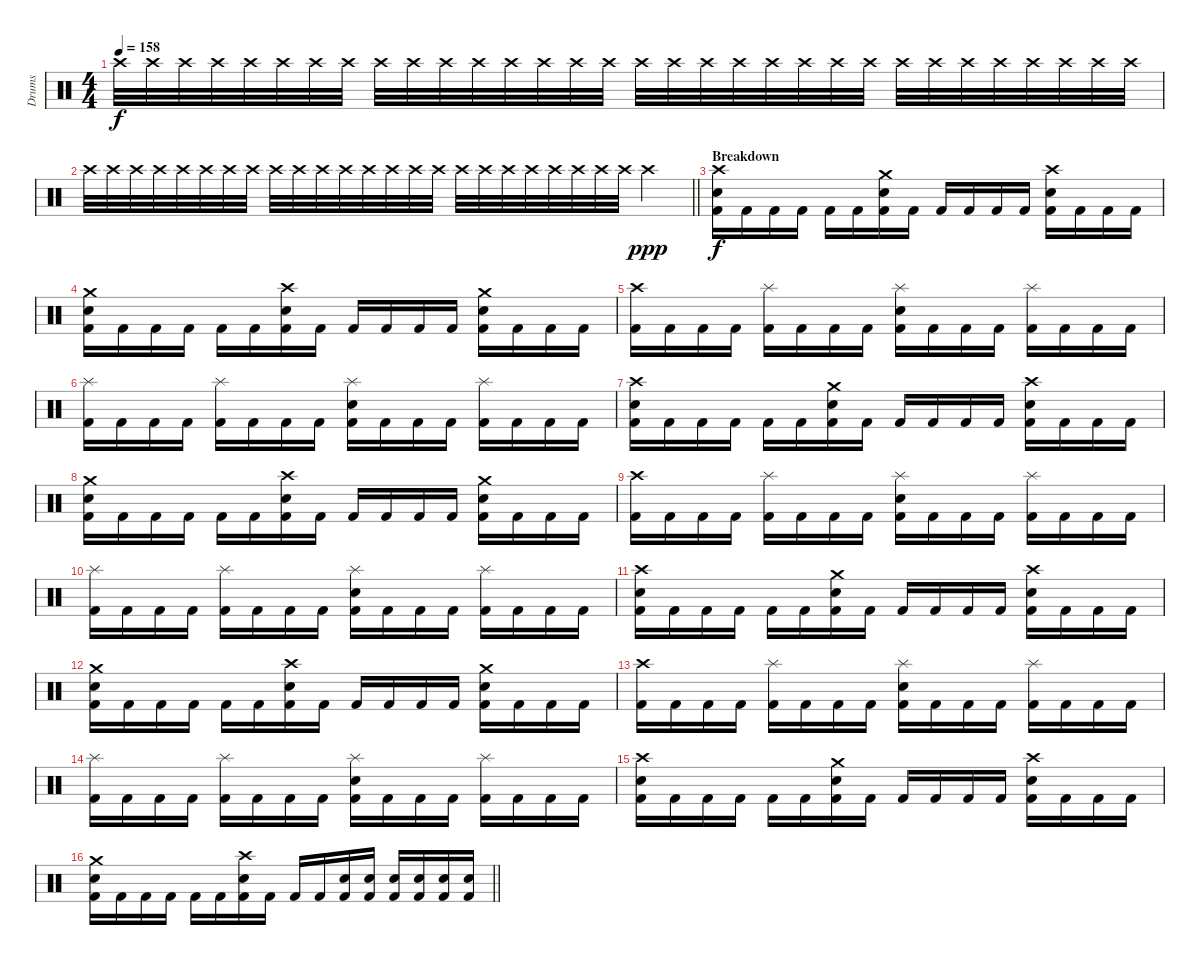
\track ("Drums" "Drums") {instrument percussion}
\staff {score}
\articulation defaults
\ts (4 4)
\tempo 158
\clef neutral
\ks c "Crash high (hit)".32{dy f volume 0} "Crash high (hit)".32{volume 12} "Crash high (hit)".32 "Crash high (hit)".32 "Crash high (hit)".32 "Crash high (hit)".32 "Crash high (hit)".32 "Crash high (hit)".32 "Crash high (hit)".32 "Crash high (hit)".32 "Crash high (hit)".32 "Crash high (hit)".32 "Crash high (hit)".32 "Crash high (hit)".32 "Crash high (hit)".32 "Crash high (hit)".32 "Crash high (hit)".32 "Crash high (hit)".32 "Crash high (hit)".32 "Crash high (hit)".32 "Crash high (hit)".32 "Crash high (hit)".32 "Crash high (hit)".32 "Crash high (hit)".32 "Crash high (hit)".32 "Crash high (hit)".32 "Crash high (hit)".32 "Crash high (hit)".32 "Crash high (hit)".32 "Crash high (hit)".32 "Crash high (hit)".32 "Crash high (hit)".32
|
\barLineRight lightlight "Crash high (hit)".32 "Crash high (hit)".32 "Crash high (hit)".32 "Crash high (hit)".32 "Crash high (hit)".32 "Crash high (hit)".32 "Crash high (hit)".32 "Crash high (hit)".32 "Crash high (hit)".32 "Crash high (hit)".32 "Crash high (hit)".32 "Crash high (hit)".32 "Crash high (hit)".32 "Crash high (hit)".32 "Crash high (hit)".32 "Crash high (hit)".32 "Crash high (hit)".32 "Crash high (hit)".32 "Crash high (hit)".32 "Crash high (hit)".32 "Crash high (hit)".32 "Crash high (hit)".32 "Crash high (hit)".32 "Crash high (hit)".32 "Crash high (hit)".4{dy ppp}
|
\section ("" "Breakdown")
("Crash high (hit)" "Snare (hit) 2" "Kick (hit) 2").16{dy f} "Kick (hit) 2".16 "Kick (hit) 2".16 "Kick (hit) 2".16 "Kick (hit) 2".16 "Kick (hit) 2".16 ("Crash medium (hit)" "Snare (hit) 2" "Kick (hit) 2").16 "Kick (hit) 2".16 "Kick (hit) 2".16 "Kick (hit) 2".16 "Kick (hit) 2".16 "Kick (hit) 2".16 ("Crash high (hit)" "Snare (hit) 2" "Kick (hit) 2").16 "Kick (hit) 2".16 "Kick (hit) 2".16 "Kick (hit) 2".16 |
("Crash medium (hit)" "Snare (hit) 2" "Kick (hit) 2").16 "Kick (hit) 2".16 "Kick (hit) 2".16 "Kick (hit) 2".16 "Kick (hit) 2".16 "Kick (hit) 2".16 ("Crash high (hit)" "Snare (hit) 2" "Kick (hit) 2").16 "Kick (hit) 2".16 "Kick (hit) 2".16 "Kick (hit) 2".16 "Kick (hit) 2".16 "Kick (hit) 2".16 ("Crash medium (hit)" "Snare (hit) 2" "Kick (hit) 2").16 "Kick (hit) 2".16 "Kick (hit) 2".16 "Kick (hit) 2".16 |
("Crash high (hit)" "Kick (hit) 2").16 "Kick (hit) 2".16 "Kick (hit) 2".16 "Kick (hit) 2".16 ("Splash (hit)" "Kick (hit) 2").16 "Kick (hit) 2".16 "Kick (hit) 2".16 "Kick (hit) 2".16 ("Splash (hit)" "Snare (hit) 2" "Kick (hit) 2").16 "Kick (hit) 2".16 "Kick (hit) 2".16 "Kick (hit) 2".16 ("Splash (hit)" "Kick (hit) 2").16 "Kick (hit) 2".16 "Kick (hit) 2".16 "Kick (hit) 2".16 |
("Splash (hit)" "Kick (hit) 2").16 "Kick (hit) 2".16 "Kick (hit) 2".16 "Kick (hit) 2".16 ("Splash (hit)" "Kick (hit) 2").16 "Kick (hit) 2".16 "Kick (hit) 2".16 "Kick (hit) 2".16 ("Splash (hit)" "Snare (hit) 2" "Kick (hit) 2").16 "Kick (hit) 2".16 "Kick (hit) 2".16 "Kick (hit) 2".16 ("Splash (hit)" "Kick (hit) 2").16 "Kick (hit) 2".16 "Kick (hit) 2".16 "Kick (hit) 2".16 |
("Crash high (hit)" "Snare (hit) 2" "Kick (hit) 2").16 "Kick (hit) 2".16 "Kick (hit) 2".16 "Kick (hit) 2".16 "Kick (hit) 2".16 "Kick (hit) 2".16 ("Crash medium (hit)" "Snare (hit) 2" "Kick (hit) 2").16 "Kick (hit) 2".16 "Kick (hit) 2".16 "Kick (hit) 2".16 "Kick (hit) 2".16 "Kick (hit) 2".16 ("Crash high (hit)" "Snare (hit) 2" "Kick (hit) 2").16 "Kick (hit) 2".16 "Kick (hit) 2".16 "Kick (hit) 2".16 |
("Crash medium (hit)" "Snare (hit) 2" "Kick (hit) 2").16 "Kick (hit) 2".16 "Kick (hit) 2".16 "Kick (hit) 2".16 "Kick (hit) 2".16 "Kick (hit) 2".16 ("Crash high (hit)" "Snare (hit) 2" "Kick (hit) 2").16 "Kick (hit) 2".16 "Kick (hit) 2".16 "Kick (hit) 2".16 "Kick (hit) 2".16 "Kick (hit) 2".16 ("Crash medium (hit)" "Snare (hit) 2" "Kick (hit) 2").16 "Kick (hit) 2".16 "Kick (hit) 2".16 "Kick (hit) 2".16 |
("Crash high (hit)" "Kick (hit) 2").16 "Kick (hit) 2".16 "Kick (hit) 2".16 "Kick (hit) 2".16 ("Splash (hit)" "Kick (hit) 2").16 "Kick (hit) 2".16 "Kick (hit) 2".16 "Kick (hit) 2".16 ("Splash (hit)" "Snare (hit) 2" "Kick (hit) 2").16 "Kick (hit) 2".16 "Kick (hit) 2".16 "Kick (hit) 2".16 ("Splash (hit)" "Kick (hit) 2").16 "Kick (hit) 2".16 "Kick (hit) 2".16 "Kick (hit) 2".16 |
("Splash (hit)" "Kick (hit) 2").16 "Kick (hit) 2".16 "Kick (hit) 2".16 "Kick (hit) 2".16 ("Splash (hit)" "Kick (hit) 2").16 "Kick (hit) 2".16 "Kick (hit) 2".16 "Kick (hit) 2".16 ("Splash (hit)" "Snare (hit) 2" "Kick (hit) 2").16 "Kick (hit) 2".16 "Kick (hit) 2".16 "Kick (hit) 2".16 ("Splash (hit)" "Kick (hit) 2").16 "Kick (hit) 2".16 "Kick (hit) 2".16 "Kick (hit) 2".16 |
("Crash high (hit)" "Snare (hit) 2" "Kick (hit) 2").16 "Kick (hit) 2".16 "Kick (hit) 2".16 "Kick (hit) 2".16 "Kick (hit) 2".16 "Kick (hit) 2".16 ("Crash medium (hit)" "Snare (hit) 2" "Kick (hit) 2").16 "Kick (hit) 2".16 "Kick (hit) 2".16 "Kick (hit) 2".16 "Kick (hit) 2".16 "Kick (hit) 2".16 ("Crash high (hit)" "Snare (hit) 2" "Kick (hit) 2").16 "Kick (hit) 2".16 "Kick (hit) 2".16 "Kick (hit) 2".16 |
("Crash medium (hit)" "Snare (hit) 2" "Kick (hit) 2").16 "Kick (hit) 2".16 "Kick (hit) 2".16 "Kick (hit) 2".16 "Kick (hit) 2".16 "Kick (hit) 2".16 ("Crash high (hit)" "Snare (hit) 2" "Kick (hit) 2").16 "Kick (hit) 2".16 "Kick (hit) 2".16 "Kick (hit) 2".16 "Kick (hit) 2".16 "Kick (hit) 2".16 ("Crash medium (hit)" "Snare (hit) 2" "Kick (hit) 2").16 "Kick (hit) 2".16 "Kick (hit) 2".16 "Kick (hit) 2".16 |
("Crash high (hit)" "Kick (hit) 2").16 "Kick (hit) 2".16 "Kick (hit) 2".16 "Kick (hit) 2".16 ("Splash (hit)" "Kick (hit) 2").16 "Kick (hit) 2".16 "Kick (hit) 2".16 "Kick (hit) 2".16 ("Splash (hit)" "Snare (hit) 2" "Kick (hit) 2").16 "Kick (hit) 2".16 "Kick (hit) 2".16 "Kick (hit) 2".16 ("Splash (hit)" "Kick (hit) 2").16 "Kick (hit) 2".16 "Kick (hit) 2".16 "Kick (hit) 2".16 |
("Splash (hit)" "Kick (hit) 2").16 "Kick (hit) 2".16 "Kick (hit) 2".16 "Kick (hit) 2".16 ("Splash (hit)" "Kick (hit) 2").16 "Kick (hit) 2".16 "Kick (hit) 2".16 "Kick (hit) 2".16 ("Splash (hit)" "Snare (hit) 2" "Kick (hit) 2").16 "Kick (hit) 2".16 "Kick (hit) 2".16 "Kick (hit) 2".16 ("Splash (hit)" "Kick (hit) 2").16 "Kick (hit) 2".16 "Kick (hit) 2".16 "Kick (hit) 2".16 |
("Crash high (hit)" "Snare (hit) 2" "Kick (hit) 2").16 "Kick (hit) 2".16 "Kick (hit) 2".16 "Kick (hit) 2".16 "Kick (hit) 2".16 "Kick (hit) 2".16 ("Crash medium (hit)" "Snare (hit) 2" "Kick (hit) 2").16 "Kick (hit) 2".16 "Kick (hit) 2".16 "Kick (hit) 2".16 "Kick (hit) 2".16 "Kick (hit) 2".16 ("Crash high (hit)" "Snare (hit) 2" "Kick (hit) 2").16 "Kick (hit) 2".16 "Kick (hit) 2".16 "Kick (hit) 2".16 |
\barLineRight lightlight
("Crash medium (hit)" "Snare (hit) 2" "Kick (hit) 2").16 "Kick (hit) 2".16 "Kick (hit) 2".16 "Kick (hit) 2".16 "Kick (hit) 2".16 "Kick (hit) 2".16 ("Crash high (hit)" "Snare (hit) 2" "Kick (hit) 2").16 "Kick (hit) 2".16 "Kick (hit) 2".16 "Kick (hit) 2".16 ("Snare (hit) 2" "Kick (hit) 2").16 ("Snare (hit) 2" "Kick (hit) 2").16 ("Snare (hit) 2" "Kick (hit) 2").16 ("Snare (hit) 2" "Kick (hit) 2").16 ("Snare (hit) 2" "Kick (hit) 2").16 ("Snare (hit) 2" "Kick (hit) 2").16
